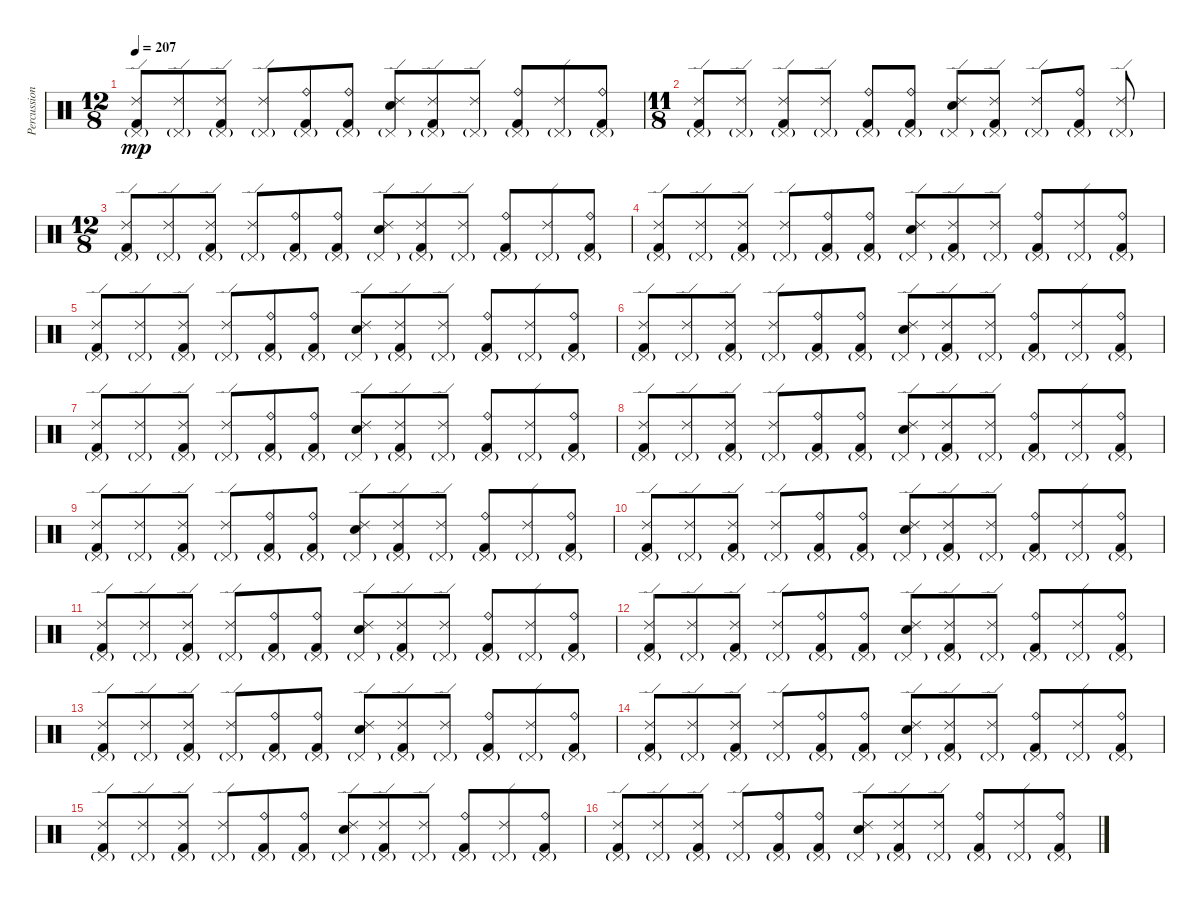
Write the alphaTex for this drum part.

\track ("Percussion" "Percussion") {instrument percussion}
\staff {score}
\articulation defaults
\ts (12 8)
\tempo 207
\clef neutral
\ks c
("Ride (edge) 2" "Pedal Hi-Hat (hit)"{g} "Kick (hit) 2").8{dy mp} ("Ride (edge) 2" "Pedal Hi-Hat (hit)"{g}).8 ("Ride (edge) 2" "Pedal Hi-Hat (hit)"{g} "Kick (hit) 2").8 ("Ride (edge) 2" "Pedal Hi-Hat (hit)"{g}).8 ("Ride (bell)" "Pedal Hi-Hat (hit)"{g} "Kick (hit) 2").8 ("Ride (bell)" "Pedal Hi-Hat (hit)"{g} "Kick (hit) 2").8 ("Ride (edge) 2" "Pedal Hi-Hat (hit)"{g} "Electric Snare (hit)").8 ("Ride (edge) 2" "Pedal Hi-Hat (hit)"{g} "Kick (hit) 2").8 ("Ride (edge) 2" "Pedal Hi-Hat (hit)"{g}).8 ("Ride (bell)" "Pedal Hi-Hat (hit)"{g} "Kick (hit) 2").8 ("Ride (edge) 2" "Pedal Hi-Hat (hit)"{g}).8 ("Ride (bell)" "Pedal Hi-Hat (hit)"{g} "Kick (hit) 2").8 |
\ts (11 8)
("Ride (edge) 2" "Pedal Hi-Hat (hit)"{g} "Kick (hit) 2").8 ("Ride (edge) 2" "Pedal Hi-Hat (hit)"{g}).8 ("Ride (edge) 2" "Pedal Hi-Hat (hit)"{g} "Kick (hit) 2").8 ("Ride (edge) 2" "Pedal Hi-Hat (hit)"{g}).8 ("Ride (bell)" "Pedal Hi-Hat (hit)"{g} "Kick (hit) 2").8 ("Ride (bell)" "Pedal Hi-Hat (hit)"{g} "Kick (hit) 2").8 ("Ride (edge) 2" "Pedal Hi-Hat (hit)"{g} "Electric Snare (hit)").8 ("Ride (edge) 2" "Pedal Hi-Hat (hit)"{g} "Kick (hit) 2").8 ("Ride (edge) 2" "Pedal Hi-Hat (hit)"{g}).8 ("Ride (bell)" "Pedal Hi-Hat (hit)"{g} "Kick (hit) 2").8 ("Ride (edge) 2" "Pedal Hi-Hat (hit)"{g}).8 |
\ts (12 8)
("Ride (edge) 2" "Pedal Hi-Hat (hit)"{g} "Kick (hit) 2").8 ("Ride (edge) 2" "Pedal Hi-Hat (hit)"{g}).8 ("Ride (edge) 2" "Pedal Hi-Hat (hit)"{g} "Kick (hit) 2").8 ("Ride (edge) 2" "Pedal Hi-Hat (hit)"{g}).8 ("Ride (bell)" "Pedal Hi-Hat (hit)"{g} "Kick (hit) 2").8 ("Ride (bell)" "Pedal Hi-Hat (hit)"{g} "Kick (hit) 2").8 ("Ride (edge) 2" "Pedal Hi-Hat (hit)"{g} "Electric Snare (hit)").8 ("Ride (edge) 2" "Pedal Hi-Hat (hit)"{g} "Kick (hit) 2").8 ("Ride (edge) 2" "Pedal Hi-Hat (hit)"{g}).8 ("Ride (bell)" "Pedal Hi-Hat (hit)"{g} "Kick (hit) 2").8 ("Ride (edge) 2" "Pedal Hi-Hat (hit)"{g}).8 ("Ride (bell)" "Pedal Hi-Hat (hit)"{g} "Kick (hit) 2").8 |
("Ride (edge) 2" "Pedal Hi-Hat (hit)"{g} "Kick (hit) 2").8 ("Ride (edge) 2" "Pedal Hi-Hat (hit)"{g}).8 ("Ride (edge) 2" "Pedal Hi-Hat (hit)"{g} "Kick (hit) 2").8 ("Ride (edge) 2" "Pedal Hi-Hat (hit)"{g}).8 ("Ride (bell)" "Pedal Hi-Hat (hit)"{g} "Kick (hit) 2").8 ("Ride (bell)" "Pedal Hi-Hat (hit)"{g} "Kick (hit) 2").8 ("Ride (edge) 2" "Pedal Hi-Hat (hit)"{g} "Electric Snare (hit)").8 ("Ride (edge) 2" "Pedal Hi-Hat (hit)"{g} "Kick (hit) 2").8 ("Ride (edge) 2" "Pedal Hi-Hat (hit)"{g}).8 ("Ride (bell)" "Pedal Hi-Hat (hit)"{g} "Kick (hit) 2").8 ("Ride (edge) 2" "Pedal Hi-Hat (hit)"{g}).8 ("Ride (bell)" "Pedal Hi-Hat (hit)"{g} "Kick (hit) 2").8 |
("Ride (edge) 2" "Pedal Hi-Hat (hit)"{g} "Kick (hit) 2").8 ("Ride (edge) 2" "Pedal Hi-Hat (hit)"{g}).8 ("Ride (edge) 2" "Pedal Hi-Hat (hit)"{g} "Kick (hit) 2").8 ("Ride (edge) 2" "Pedal Hi-Hat (hit)"{g}).8 ("Ride (bell)" "Pedal Hi-Hat (hit)"{g} "Kick (hit) 2").8 ("Ride (bell)" "Pedal Hi-Hat (hit)"{g} "Kick (hit) 2").8 ("Ride (edge) 2" "Pedal Hi-Hat (hit)"{g} "Electric Snare (hit)").8 ("Ride (edge) 2" "Pedal Hi-Hat (hit)"{g} "Kick (hit) 2").8 ("Ride (edge) 2" "Pedal Hi-Hat (hit)"{g}).8 ("Ride (bell)" "Pedal Hi-Hat (hit)"{g} "Kick (hit) 2").8 ("Ride (edge) 2" "Pedal Hi-Hat (hit)"{g}).8 ("Ride (bell)" "Pedal Hi-Hat (hit)"{g} "Kick (hit) 2").8 |
("Ride (edge) 2" "Pedal Hi-Hat (hit)"{g} "Kick (hit) 2").8 ("Ride (edge) 2" "Pedal Hi-Hat (hit)"{g}).8 ("Ride (edge) 2" "Pedal Hi-Hat (hit)"{g} "Kick (hit) 2").8 ("Ride (edge) 2" "Pedal Hi-Hat (hit)"{g}).8 ("Ride (bell)" "Pedal Hi-Hat (hit)"{g} "Kick (hit) 2").8 ("Ride (bell)" "Pedal Hi-Hat (hit)"{g} "Kick (hit) 2").8 ("Ride (edge) 2" "Pedal Hi-Hat (hit)"{g} "Electric Snare (hit)").8 ("Ride (edge) 2" "Pedal Hi-Hat (hit)"{g} "Kick (hit) 2").8 ("Ride (edge) 2" "Pedal Hi-Hat (hit)"{g}).8 ("Ride (bell)" "Pedal Hi-Hat (hit)"{g} "Kick (hit) 2").8 ("Ride (edge) 2" "Pedal Hi-Hat (hit)"{g}).8 ("Ride (bell)" "Pedal Hi-Hat (hit)"{g} "Kick (hit) 2").8 |
("Ride (edge) 2" "Pedal Hi-Hat (hit)"{g} "Kick (hit) 2").8 ("Ride (edge) 2" "Pedal Hi-Hat (hit)"{g}).8 ("Ride (edge) 2" "Pedal Hi-Hat (hit)"{g} "Kick (hit) 2").8 ("Ride (edge) 2" "Pedal Hi-Hat (hit)"{g}).8 ("Ride (bell)" "Pedal Hi-Hat (hit)"{g} "Kick (hit) 2").8 ("Ride (bell)" "Pedal Hi-Hat (hit)"{g} "Kick (hit) 2").8 ("Ride (edge) 2" "Pedal Hi-Hat (hit)"{g} "Electric Snare (hit)").8 ("Ride (edge) 2" "Pedal Hi-Hat (hit)"{g} "Kick (hit) 2").8 ("Ride (edge) 2" "Pedal Hi-Hat (hit)"{g}).8 ("Ride (bell)" "Pedal Hi-Hat (hit)"{g} "Kick (hit) 2").8 ("Ride (edge) 2" "Pedal Hi-Hat (hit)"{g}).8 ("Ride (bell)" "Pedal Hi-Hat (hit)"{g} "Kick (hit) 2").8 |
("Ride (edge) 2" "Pedal Hi-Hat (hit)"{g} "Kick (hit) 2").8 ("Ride (edge) 2" "Pedal Hi-Hat (hit)"{g}).8 ("Ride (edge) 2" "Pedal Hi-Hat (hit)"{g} "Kick (hit) 2").8 ("Ride (edge) 2" "Pedal Hi-Hat (hit)"{g}).8 ("Ride (bell)" "Pedal Hi-Hat (hit)"{g} "Kick (hit) 2").8 ("Ride (bell)" "Pedal Hi-Hat (hit)"{g} "Kick (hit) 2").8 ("Ride (edge) 2" "Pedal Hi-Hat (hit)"{g} "Electric Snare (hit)").8 ("Ride (edge) 2" "Pedal Hi-Hat (hit)"{g} "Kick (hit) 2").8 ("Ride (edge) 2" "Pedal Hi-Hat (hit)"{g}).8 ("Ride (bell)" "Pedal Hi-Hat (hit)"{g} "Kick (hit) 2").8 ("Ride (edge) 2" "Pedal Hi-Hat (hit)"{g}).8 ("Ride (bell)" "Pedal Hi-Hat (hit)"{g} "Kick (hit) 2").8 |
("Ride (edge) 2" "Pedal Hi-Hat (hit)"{g} "Kick (hit) 2").8 ("Ride (edge) 2" "Pedal Hi-Hat (hit)"{g}).8 ("Ride (edge) 2" "Pedal Hi-Hat (hit)"{g} "Kick (hit) 2").8 ("Ride (edge) 2" "Pedal Hi-Hat (hit)"{g}).8 ("Ride (bell)" "Pedal Hi-Hat (hit)"{g} "Kick (hit) 2").8 ("Ride (bell)" "Pedal Hi-Hat (hit)"{g} "Kick (hit) 2").8 ("Ride (edge) 2" "Pedal Hi-Hat (hit)"{g} "Electric Snare (hit)").8 ("Ride (edge) 2" "Pedal Hi-Hat (hit)"{g} "Kick (hit) 2").8 ("Ride (edge) 2" "Pedal Hi-Hat (hit)"{g}).8 ("Ride (bell)" "Pedal Hi-Hat (hit)"{g} "Kick (hit) 2").8 ("Ride (edge) 2" "Pedal Hi-Hat (hit)"{g}).8 ("Ride (bell)" "Pedal Hi-Hat (hit)"{g} "Kick (hit) 2").8 |
("Ride (edge) 2" "Pedal Hi-Hat (hit)"{g} "Kick (hit) 2").8 ("Ride (edge) 2" "Pedal Hi-Hat (hit)"{g}).8 ("Ride (edge) 2" "Pedal Hi-Hat (hit)"{g} "Kick (hit) 2").8 ("Ride (edge) 2" "Pedal Hi-Hat (hit)"{g}).8 ("Ride (bell)" "Pedal Hi-Hat (hit)"{g} "Kick (hit) 2").8 ("Ride (bell)" "Pedal Hi-Hat (hit)"{g} "Kick (hit) 2").8 ("Ride (edge) 2" "Pedal Hi-Hat (hit)"{g} "Electric Snare (hit)").8 ("Ride (edge) 2" "Pedal Hi-Hat (hit)"{g} "Kick (hit) 2").8 ("Ride (edge) 2" "Pedal Hi-Hat (hit)"{g}).8 ("Ride (bell)" "Pedal Hi-Hat (hit)"{g} "Kick (hit) 2").8 ("Ride (edge) 2" "Pedal Hi-Hat (hit)"{g}).8 ("Ride (bell)" "Pedal Hi-Hat (hit)"{g} "Kick (hit) 2").8 |
("Ride (edge) 2" "Pedal Hi-Hat (hit)"{g} "Kick (hit) 2").8 ("Ride (edge) 2" "Pedal Hi-Hat (hit)"{g}).8 ("Ride (edge) 2" "Pedal Hi-Hat (hit)"{g} "Kick (hit) 2").8 ("Ride (edge) 2" "Pedal Hi-Hat (hit)"{g}).8 ("Ride (bell)" "Pedal Hi-Hat (hit)"{g} "Kick (hit) 2").8 ("Ride (bell)" "Pedal Hi-Hat (hit)"{g} "Kick (hit) 2").8 ("Ride (edge) 2" "Pedal Hi-Hat (hit)"{g} "Electric Snare (hit)").8 ("Ride (edge) 2" "Pedal Hi-Hat (hit)"{g} "Kick (hit) 2").8 ("Ride (edge) 2" "Pedal Hi-Hat (hit)"{g}).8 ("Ride (bell)" "Pedal Hi-Hat (hit)"{g} "Kick (hit) 2").8 ("Ride (edge) 2" "Pedal Hi-Hat (hit)"{g}).8 ("Ride (bell)" "Pedal Hi-Hat (hit)"{g} "Kick (hit) 2").8 |
("Ride (edge) 2" "Pedal Hi-Hat (hit)"{g} "Kick (hit) 2").8 ("Ride (edge) 2" "Pedal Hi-Hat (hit)"{g}).8 ("Ride (edge) 2" "Pedal Hi-Hat (hit)"{g} "Kick (hit) 2").8 ("Ride (edge) 2" "Pedal Hi-Hat (hit)"{g}).8 ("Ride (bell)" "Pedal Hi-Hat (hit)"{g} "Kick (hit) 2").8 ("Ride (bell)" "Pedal Hi-Hat (hit)"{g} "Kick (hit) 2").8 ("Ride (edge) 2" "Pedal Hi-Hat (hit)"{g} "Electric Snare (hit)").8 ("Ride (edge) 2" "Pedal Hi-Hat (hit)"{g} "Kick (hit) 2").8 ("Ride (edge) 2" "Pedal Hi-Hat (hit)"{g}).8 ("Ride (bell)" "Pedal Hi-Hat (hit)"{g} "Kick (hit) 2").8 ("Ride (edge) 2" "Pedal Hi-Hat (hit)"{g}).8 ("Ride (bell)" "Pedal Hi-Hat (hit)"{g} "Kick (hit) 2").8 |
("Ride (edge) 2" "Pedal Hi-Hat (hit)"{g} "Kick (hit) 2").8 ("Ride (edge) 2" "Pedal Hi-Hat (hit)"{g}).8 ("Ride (edge) 2" "Pedal Hi-Hat (hit)"{g} "Kick (hit) 2").8 ("Ride (edge) 2" "Pedal Hi-Hat (hit)"{g}).8 ("Ride (bell)" "Pedal Hi-Hat (hit)"{g} "Kick (hit) 2").8 ("Ride (bell)" "Pedal Hi-Hat (hit)"{g} "Kick (hit) 2").8 ("Ride (edge) 2" "Pedal Hi-Hat (hit)"{g} "Electric Snare (hit)").8 ("Ride (edge) 2" "Pedal Hi-Hat (hit)"{g} "Kick (hit) 2").8 ("Ride (edge) 2" "Pedal Hi-Hat (hit)"{g}).8 ("Ride (bell)" "Pedal Hi-Hat (hit)"{g} "Kick (hit) 2").8 ("Ride (edge) 2" "Pedal Hi-Hat (hit)"{g}).8 ("Ride (bell)" "Pedal Hi-Hat (hit)"{g} "Kick (hit) 2").8 |
("Ride (edge) 2" "Pedal Hi-Hat (hit)"{g} "Kick (hit) 2").8 ("Ride (edge) 2" "Pedal Hi-Hat (hit)"{g}).8 ("Ride (edge) 2" "Pedal Hi-Hat (hit)"{g} "Kick (hit) 2").8 ("Ride (edge) 2" "Pedal Hi-Hat (hit)"{g}).8 ("Ride (bell)" "Pedal Hi-Hat (hit)"{g} "Kick (hit) 2").8 ("Ride (bell)" "Pedal Hi-Hat (hit)"{g} "Kick (hit) 2").8 ("Ride (edge) 2" "Pedal Hi-Hat (hit)"{g} "Electric Snare (hit)").8 ("Ride (edge) 2" "Pedal Hi-Hat (hit)"{g} "Kick (hit) 2").8 ("Ride (edge) 2" "Pedal Hi-Hat (hit)"{g}).8 ("Ride (bell)" "Pedal Hi-Hat (hit)"{g} "Kick (hit) 2").8 ("Ride (edge) 2" "Pedal Hi-Hat (hit)"{g}).8 ("Ride (bell)" "Pedal Hi-Hat (hit)"{g} "Kick (hit) 2").8 |
("Ride (edge) 2" "Pedal Hi-Hat (hit)"{g} "Kick (hit) 2").8 ("Ride (edge) 2" "Pedal Hi-Hat (hit)"{g}).8 ("Ride (edge) 2" "Pedal Hi-Hat (hit)"{g} "Kick (hit) 2").8 ("Ride (edge) 2" "Pedal Hi-Hat (hit)"{g}).8 ("Ride (bell)" "Pedal Hi-Hat (hit)"{g} "Kick (hit) 2").8 ("Ride (bell)" "Pedal Hi-Hat (hit)"{g} "Kick (hit) 2").8 ("Ride (edge) 2" "Pedal Hi-Hat (hit)"{g} "Electric Snare (hit)").8 ("Ride (edge) 2" "Pedal Hi-Hat (hit)"{g} "Kick (hit) 2").8 ("Ride (edge) 2" "Pedal Hi-Hat (hit)"{g}).8 ("Ride (bell)" "Pedal Hi-Hat (hit)"{g} "Kick (hit) 2").8 ("Ride (edge) 2" "Pedal Hi-Hat (hit)"{g}).8 ("Ride (bell)" "Pedal Hi-Hat (hit)"{g} "Kick (hit) 2").8 |
("Ride (edge) 2" "Pedal Hi-Hat (hit)"{g} "Kick (hit) 2").8 ("Ride (edge) 2" "Pedal Hi-Hat (hit)"{g}).8 ("Ride (edge) 2" "Pedal Hi-Hat (hit)"{g} "Kick (hit) 2").8 ("Ride (edge) 2" "Pedal Hi-Hat (hit)"{g}).8 ("Ride (bell)" "Pedal Hi-Hat (hit)"{g} "Kick (hit) 2").8 ("Ride (bell)" "Pedal Hi-Hat (hit)"{g} "Kick (hit) 2").8 ("Ride (edge) 2" "Pedal Hi-Hat (hit)"{g} "Electric Snare (hit)").8 ("Ride (edge) 2" "Pedal Hi-Hat (hit)"{g} "Kick (hit) 2").8 ("Ride (edge) 2" "Pedal Hi-Hat (hit)"{g}).8 ("Ride (bell)" "Pedal Hi-Hat (hit)"{g} "Kick (hit) 2").8 ("Ride (edge) 2" "Pedal Hi-Hat (hit)"{g}).8 ("Ride (bell)" "Pedal Hi-Hat (hit)"{g} "Kick (hit) 2").8
